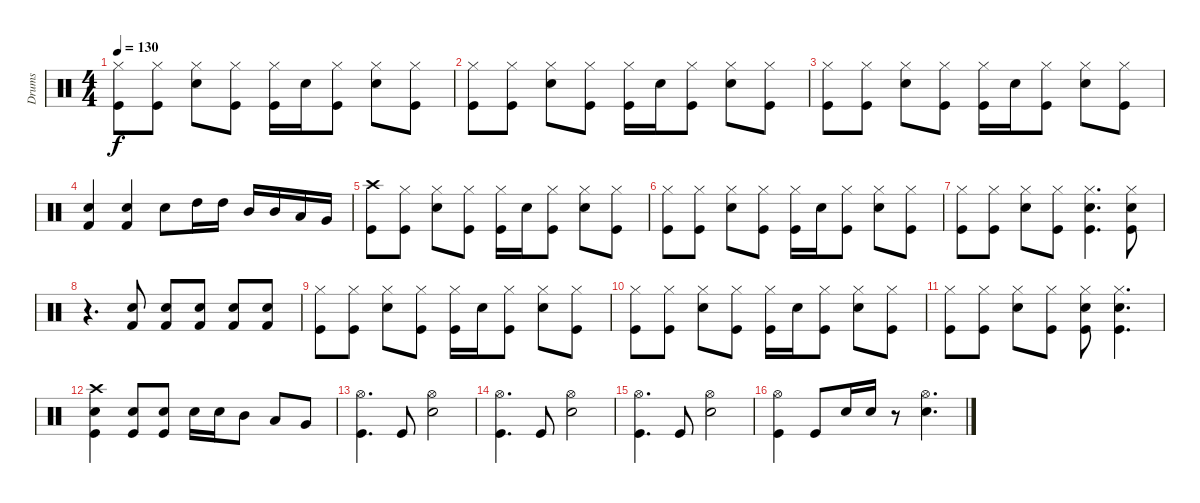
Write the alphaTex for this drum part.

\track ("Drums" "Drums") {instrument percussion}
\staff {score}
\articulation defaults
\ts (4 4)
\tempo 130
\clef neutral
\ks c
("Hi-Hat (closed)" "Kick (hit)").8{dy f} ("Hi-Hat (closed)" "Kick (hit)").8 ("Hi-Hat (closed)" "Snare (hit) 2").8 ("Hi-Hat (closed)" "Kick (hit)").8 ("Hi-Hat (closed)" "Kick (hit)").16 "Snare (hit) 2".16 ("Hi-Hat (closed)" "Kick (hit)").8 ("Hi-Hat (closed)" "Snare (hit) 2").8 ("Hi-Hat (closed)" "Kick (hit)").8 |
("Hi-Hat (closed)" "Kick (hit)").8 ("Hi-Hat (closed)" "Kick (hit)").8 ("Hi-Hat (closed)" "Snare (hit) 2").8 ("Hi-Hat (closed)" "Kick (hit)").8 ("Hi-Hat (closed)" "Kick (hit)").16 "Snare (hit) 2".16 ("Hi-Hat (closed)" "Kick (hit)").8 ("Hi-Hat (closed)" "Snare (hit) 2").8 ("Hi-Hat (closed)" "Kick (hit)").8 |
("Hi-Hat (closed)" "Kick (hit)").8 ("Hi-Hat (closed)" "Kick (hit)").8 ("Hi-Hat (closed)" "Snare (hit) 2").8 ("Hi-Hat (closed)" "Kick (hit)").8 ("Hi-Hat (closed)" "Kick (hit)").16 "Snare (hit) 2".16 ("Hi-Hat (closed)" "Kick (hit)").8 ("Hi-Hat (closed)" "Snare (hit) 2").8 ("Hi-Hat (closed)" "Kick (hit)").8 |
("Kick (hit) 2" "Snare (hit) 2").4 ("Kick (hit) 2" "Snare (hit) 2").4 "Snare (hit) 2".8 "High Tom (hit)".16 "High Tom (hit)".16 "Mid Tom (hit)".16 "Mid Tom (hit)".16 "Low Tom (hit)".16 "Very Low Tom (hit)".16 |
("Crash high (hit)" "Kick (hit)").8 ("Hi-Hat (closed)" "Kick (hit)").8 ("Hi-Hat (closed)" "Snare (hit) 2").8 ("Hi-Hat (closed)" "Kick (hit)").8 ("Hi-Hat (closed)" "Kick (hit)").16 "Snare (hit) 2".16 ("Hi-Hat (closed)" "Kick (hit)").8 ("Hi-Hat (closed)" "Snare (hit) 2").8 ("Hi-Hat (closed)" "Kick (hit)").8 |
("Hi-Hat (closed)" "Kick (hit)").8 ("Hi-Hat (closed)" "Kick (hit)").8 ("Hi-Hat (closed)" "Snare (hit) 2").8 ("Hi-Hat (closed)" "Kick (hit)").8 ("Hi-Hat (closed)" "Kick (hit)").16 "Snare (hit) 2".16 ("Hi-Hat (closed)" "Kick (hit)").8 ("Hi-Hat (closed)" "Snare (hit) 2").8 ("Hi-Hat (closed)" "Kick (hit)").8 |
("Hi-Hat (closed)" "Kick (hit)").8 ("Hi-Hat (closed)" "Kick (hit)").8 ("Hi-Hat (closed)" "Snare (hit) 2").8 ("Hi-Hat (closed)" "Kick (hit)").8 ("Hi-Hat (closed)" "Snare (hit) 2" "Kick (hit)").4{d} ("Hi-Hat (closed)" "Snare (hit) 2" "Kick (hit)").8 |
r.4{d} ("Kick (hit) 2" "Snare (hit) 2").8 ("Kick (hit) 2" "Snare (hit) 2").8 ("Kick (hit) 2" "Snare (hit) 2").8 ("Kick (hit) 2" "Snare (hit) 2").8 ("Kick (hit) 2" "Snare (hit) 2").8 |
("Hi-Hat (closed)" "Kick (hit)").8 ("Hi-Hat (closed)" "Kick (hit)").8 ("Hi-Hat (closed)" "Snare (hit) 2").8 ("Hi-Hat (closed)" "Kick (hit)").8 ("Hi-Hat (closed)" "Kick (hit)").16 "Snare (hit) 2".16 ("Hi-Hat (closed)" "Kick (hit)").8 ("Hi-Hat (closed)" "Snare (hit) 2").8 ("Hi-Hat (closed)" "Kick (hit)").8 |
("Hi-Hat (closed)" "Kick (hit)").8 ("Hi-Hat (closed)" "Kick (hit)").8 ("Hi-Hat (closed)" "Snare (hit) 2").8 ("Hi-Hat (closed)" "Kick (hit)").8 ("Hi-Hat (closed)" "Kick (hit)").16 "Snare (hit) 2".16 ("Hi-Hat (closed)" "Kick (hit)").8 ("Hi-Hat (closed)" "Snare (hit) 2").8 ("Hi-Hat (closed)" "Kick (hit)").8 |
("Hi-Hat (closed)" "Kick (hit)").8 ("Hi-Hat (closed)" "Kick (hit)").8 ("Hi-Hat (closed)" "Snare (hit) 2").8 ("Hi-Hat (closed)" "Kick (hit)").8 ("Hi-Hat (closed)" "Snare (hit) 2" "Kick (hit)").8 ("Hi-Hat (closed)" "Snare (hit) 2" "Kick (hit)").4{d} |
("Crash high (hit)" "Snare (hit) 2" "Kick (hit)").4 ("Snare (hit) 2" "Kick (hit)").8 ("Snare (hit) 2" "Kick (hit)").8 "Snare (hit) 2".16 "Snare (hit) 2".16 "Mid Tom (hit)".8 "Low Tom (hit)".8 "Very Low Tom (hit)".8 |
("Hi-Hat (open)" "Kick (hit)").4{d} "Kick (hit)".8 ("Hi-Hat (open)" "Snare (hit) 2").2 |
("Hi-Hat (open)" "Kick (hit)").4{d} "Kick (hit)".8 ("Hi-Hat (open)" "Snare (hit) 2").2 |
("Hi-Hat (open)" "Kick (hit)").4{d} "Kick (hit)".8 ("Hi-Hat (open)" "Snare (hit) 2").2 |
("Hi-Hat (open)" "Kick (hit)").4 "Kick (hit)".8 "Snare (hit) 2".16 "Snare (hit) 2".16 r.8 ("Hi-Hat (open)" "Snare (hit) 2").4{d}
